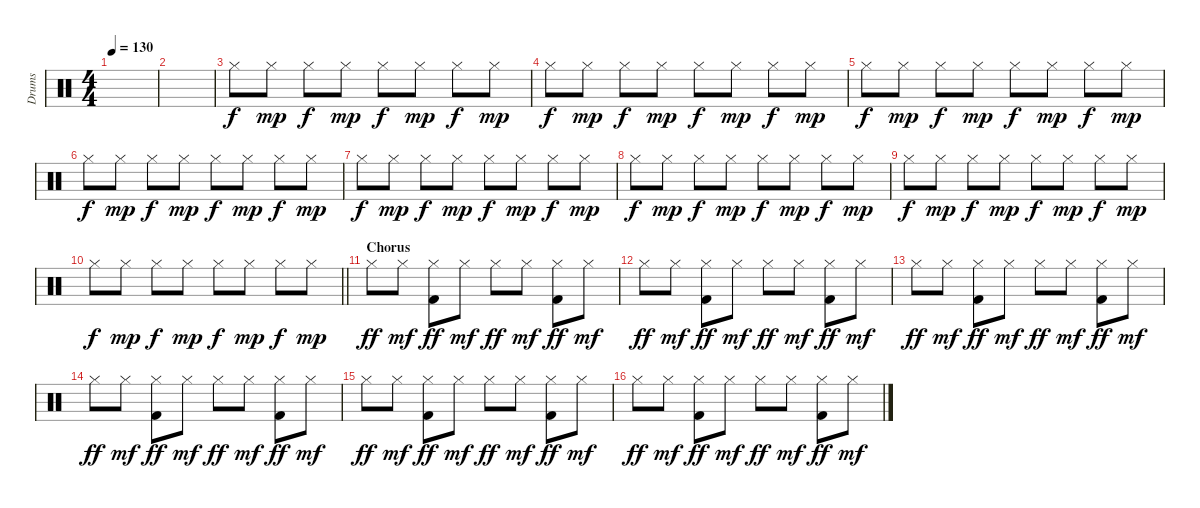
\track ("Drums" "Drums") {instrument percussion}
\staff {score}
\articulation defaults
\ts (4 4)
\tempo 130
\clef neutral
\ks c
|
|
"Hi-Hat (closed)".8 "Hi-Hat (closed)".8{dy mp} "Hi-Hat (closed)".8{dy f} "Hi-Hat (closed)".8{dy mp} "Hi-Hat (closed)".8{dy f} "Hi-Hat (closed)".8{dy mp} "Hi-Hat (closed)".8{dy f} "Hi-Hat (closed)".8{dy mp} |
"Hi-Hat (closed)".8{dy f} "Hi-Hat (closed)".8{dy mp} "Hi-Hat (closed)".8{dy f} "Hi-Hat (closed)".8{dy mp} "Hi-Hat (closed)".8{dy f} "Hi-Hat (closed)".8{dy mp} "Hi-Hat (closed)".8{dy f} "Hi-Hat (closed)".8{dy mp} |
"Hi-Hat (closed)".8{dy f} "Hi-Hat (closed)".8{dy mp} "Hi-Hat (closed)".8{dy f} "Hi-Hat (closed)".8{dy mp} "Hi-Hat (closed)".8{dy f} "Hi-Hat (closed)".8{dy mp} "Hi-Hat (closed)".8{dy f} "Hi-Hat (closed)".8{dy mp} |
"Hi-Hat (closed)".8{dy f} "Hi-Hat (closed)".8{dy mp} "Hi-Hat (closed)".8{dy f} "Hi-Hat (closed)".8{dy mp} "Hi-Hat (closed)".8{dy f} "Hi-Hat (closed)".8{dy mp} "Hi-Hat (closed)".8{dy f} "Hi-Hat (closed)".8{dy mp} |
"Hi-Hat (closed)".8{dy f} "Hi-Hat (closed)".8{dy mp} "Hi-Hat (closed)".8{dy f} "Hi-Hat (closed)".8{dy mp} "Hi-Hat (closed)".8{dy f} "Hi-Hat (closed)".8{dy mp} "Hi-Hat (closed)".8{dy f} "Hi-Hat (closed)".8{dy mp} |
"Hi-Hat (closed)".8{dy f} "Hi-Hat (closed)".8{dy mp} "Hi-Hat (closed)".8{dy f} "Hi-Hat (closed)".8{dy mp} "Hi-Hat (closed)".8{dy f} "Hi-Hat (closed)".8{dy mp} "Hi-Hat (closed)".8{dy f} "Hi-Hat (closed)".8{dy mp} |
"Hi-Hat (closed)".8{dy f} "Hi-Hat (closed)".8{dy mp} "Hi-Hat (closed)".8{dy f} "Hi-Hat (closed)".8{dy mp} "Hi-Hat (closed)".8{dy f} "Hi-Hat (closed)".8{dy mp} "Hi-Hat (closed)".8{dy f} "Hi-Hat (closed)".8{dy mp} |
\barLineRight lightlight "Hi-Hat (closed)".8{dy f} "Hi-Hat (closed)".8{dy mp} "Hi-Hat (closed)".8{dy f} "Hi-Hat (closed)".8{dy mp} "Hi-Hat (closed)".8{dy f} "Hi-Hat (closed)".8{dy mp} "Hi-Hat (closed)".8{dy f} "Hi-Hat (closed)".8{dy mp}
|
\section ("" "Chorus")
"Hi-Hat (closed)".8{dy ff} "Hi-Hat (closed)".8{dy mf} ("Hi-Hat (closed)" "Kick (hit) 2").8{dy ff} "Hi-Hat (closed)".8{dy mf} "Hi-Hat (closed)".8{dy ff} "Hi-Hat (closed)".8{dy mf} ("Hi-Hat (closed)" "Kick (hit) 2").8{dy ff} "Hi-Hat (closed)".8{dy mf} |
"Hi-Hat (closed)".8{dy ff} "Hi-Hat (closed)".8{dy mf} ("Hi-Hat (closed)" "Kick (hit) 2").8{dy ff} "Hi-Hat (closed)".8{dy mf} "Hi-Hat (closed)".8{dy ff} "Hi-Hat (closed)".8{dy mf} ("Hi-Hat (closed)" "Kick (hit) 2").8{dy ff} "Hi-Hat (closed)".8{dy mf} |
"Hi-Hat (closed)".8{dy ff} "Hi-Hat (closed)".8{dy mf} ("Hi-Hat (closed)" "Kick (hit) 2").8{dy ff} "Hi-Hat (closed)".8{dy mf} "Hi-Hat (closed)".8{dy ff} "Hi-Hat (closed)".8{dy mf} ("Hi-Hat (closed)" "Kick (hit) 2").8{dy ff} "Hi-Hat (closed)".8{dy mf} |
"Hi-Hat (closed)".8{dy ff} "Hi-Hat (closed)".8{dy mf} ("Hi-Hat (closed)" "Kick (hit) 2").8{dy ff} "Hi-Hat (closed)".8{dy mf} "Hi-Hat (closed)".8{dy ff} "Hi-Hat (closed)".8{dy mf} ("Hi-Hat (closed)" "Kick (hit) 2").8{dy ff} "Hi-Hat (closed)".8{dy mf} |
"Hi-Hat (closed)".8{dy ff} "Hi-Hat (closed)".8{dy mf} ("Hi-Hat (closed)" "Kick (hit) 2").8{dy ff} "Hi-Hat (closed)".8{dy mf} "Hi-Hat (closed)".8{dy ff} "Hi-Hat (closed)".8{dy mf} ("Hi-Hat (closed)" "Kick (hit) 2").8{dy ff} "Hi-Hat (closed)".8{dy mf} |
"Hi-Hat (closed)".8{dy ff} "Hi-Hat (closed)".8{dy mf} ("Hi-Hat (closed)" "Kick (hit) 2").8{dy ff} "Hi-Hat (closed)".8{dy mf} "Hi-Hat (closed)".8{dy ff} "Hi-Hat (closed)".8{dy mf} ("Hi-Hat (closed)" "Kick (hit) 2").8{dy ff} "Hi-Hat (closed)".8{dy mf}
